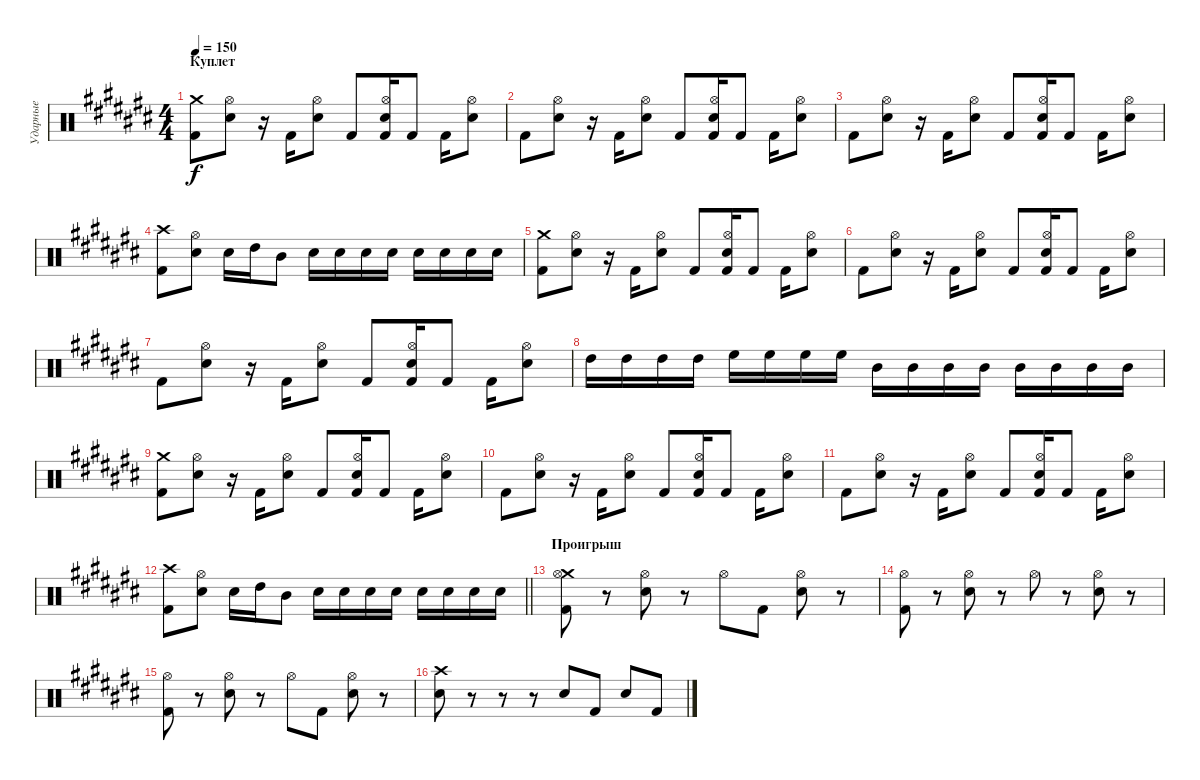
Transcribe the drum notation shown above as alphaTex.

\track ("Ударные" "Ударные") {instrument percussion}
\staff {score}
\articulation defaults
\ts (4 4)
\section ("" "Куплет")
\tempo 150
\clef neutral
\ks a#minor
("Crash medium (hit)" "Kick (hit) 2").8{dy f} ("Hi-Hat (open)" "Electric Snare (hit)").8 r.16 "Kick (hit) 2".16 ("Hi-Hat (open)" "Electric Snare (hit)").8 "Kick (hit) 2".8 ("Kick (hit) 2" "Hi-Hat (open)" "Electric Snare (hit)").16 "Kick (hit) 2".8 "Kick (hit) 2".16 ("Hi-Hat (open)" "Electric Snare (hit)").8 |
"Kick (hit) 2".8 ("Hi-Hat (open)" "Electric Snare (hit)").8 r.16 "Kick (hit) 2".16 ("Hi-Hat (open)" "Electric Snare (hit)").8 "Kick (hit) 2".8 ("Kick (hit) 2" "Hi-Hat (open)" "Electric Snare (hit)").16 "Kick (hit) 2".8 "Kick (hit) 2".16 ("Hi-Hat (open)" "Electric Snare (hit)").8 |
"Kick (hit) 2".8 ("Hi-Hat (open)" "Electric Snare (hit)").8 r.16 "Kick (hit) 2".16 ("Hi-Hat (open)" "Electric Snare (hit)").8 "Kick (hit) 2".8 ("Kick (hit) 2" "Hi-Hat (open)" "Electric Snare (hit)").16 "Kick (hit) 2".8 "Kick (hit) 2".16 ("Hi-Hat (open)" "Electric Snare (hit)").8 |
("Crash high (hit)" "Kick (hit) 2").8 ("Hi-Hat (open)" "Electric Snare (hit)").8 "Electric Snare (hit)".16 "High Tom (hit)".16 "Mid Tom (hit)".8 "Electric Snare (hit)".16 "Electric Snare (hit)".16 "Electric Snare (hit)".16 "Electric Snare (hit)".16 "Electric Snare (hit)".16 "Electric Snare (hit)".16 "Electric Snare (hit)".16 "Electric Snare (hit)".16 |
("Crash medium (hit)" "Kick (hit) 2").8 ("Hi-Hat (open)" "Electric Snare (hit)").8 r.16 "Kick (hit) 2".16 ("Hi-Hat (open)" "Electric Snare (hit)").8 "Kick (hit) 2".8 ("Kick (hit) 2" "Hi-Hat (open)" "Electric Snare (hit)").16 "Kick (hit) 2".8 "Kick (hit) 2".16 ("Hi-Hat (open)" "Electric Snare (hit)").8 |
"Kick (hit) 2".8 ("Hi-Hat (open)" "Electric Snare (hit)").8 r.16 "Kick (hit) 2".16 ("Hi-Hat (open)" "Electric Snare (hit)").8 "Kick (hit) 2".8 ("Kick (hit) 2" "Hi-Hat (open)" "Electric Snare (hit)").16 "Kick (hit) 2".8 "Kick (hit) 2".16 ("Hi-Hat (open)" "Electric Snare (hit)").8 |
"Kick (hit) 2".8 ("Hi-Hat (open)" "Electric Snare (hit)").8 r.16 "Kick (hit) 2".16 ("Hi-Hat (open)" "Electric Snare (hit)").8 "Kick (hit) 2".8 ("Kick (hit) 2" "Hi-Hat (open)" "Electric Snare (hit)").16 "Kick (hit) 2".8 "Kick (hit) 2".16 ("Hi-Hat (open)" "Electric Snare (hit)").8 |
"High Tom (hit)".16 "High Tom (hit)".16 "High Tom (hit)".16 "High Tom (hit)".16 "High Floor Tom (hit)".16 "High Floor Tom (hit)".16 "High Floor Tom (hit)".16 "High Floor Tom (hit)".16 "Mid Tom (hit)".16 "Mid Tom (hit)".16 "Mid Tom (hit)".16 "Mid Tom (hit)".16 "Mid Tom (hit)".16 "Mid Tom (hit)".16 "Mid Tom (hit)".16 "Mid Tom (hit)".16 |
("Crash medium (hit)" "Kick (hit) 2").8 ("Hi-Hat (open)" "Electric Snare (hit)").8 r.16 "Kick (hit) 2".16 ("Hi-Hat (open)" "Electric Snare (hit)").8 "Kick (hit) 2".8 ("Kick (hit) 2" "Hi-Hat (open)" "Electric Snare (hit)").16 "Kick (hit) 2".8 "Kick (hit) 2".16 ("Hi-Hat (open)" "Electric Snare (hit)").8 |
"Kick (hit) 2".8 ("Hi-Hat (open)" "Electric Snare (hit)").8 r.16 "Kick (hit) 2".16 ("Hi-Hat (open)" "Electric Snare (hit)").8 "Kick (hit) 2".8 ("Kick (hit) 2" "Hi-Hat (open)" "Electric Snare (hit)").16 "Kick (hit) 2".8 "Kick (hit) 2".16 ("Hi-Hat (open)" "Electric Snare (hit)").8 |
"Kick (hit) 2".8 ("Hi-Hat (open)" "Electric Snare (hit)").8 r.16 "Kick (hit) 2".16 ("Hi-Hat (open)" "Electric Snare (hit)").8 "Kick (hit) 2".8 ("Kick (hit) 2" "Hi-Hat (open)" "Electric Snare (hit)").16 "Kick (hit) 2".8 "Kick (hit) 2".16 ("Hi-Hat (open)" "Electric Snare (hit)").8 |
\barLineRight lightlight
("Crash high (hit)" "Kick (hit) 2").8 ("Hi-Hat (open)" "Electric Snare (hit)").8 "Electric Snare (hit)".16 "High Tom (hit)".16 "Mid Tom (hit)".8 "Electric Snare (hit)".16 "Electric Snare (hit)".16 "Electric Snare (hit)".16 "Electric Snare (hit)".16 "Electric Snare (hit)".16 "Electric Snare (hit)".16 "Electric Snare (hit)".16 "Electric Snare (hit)".16 |
\section ("" "Проигрыш")
("Crash medium (hit)" "Kick (hit) 2" "Hi-Hat (open)").8 r.8 ("Electric Snare (hit)" "Hi-Hat (open)").8 r.8 "Hi-Hat (open)".8 "Kick (hit) 2".8 ("Electric Snare (hit)" "Hi-Hat (open)").8 r.8 |
("Kick (hit) 2" "Hi-Hat (open)").8 r.8 ("Electric Snare (hit)" "Hi-Hat (open)").8 r.8 "Hi-Hat (open)".8 r.8 ("Electric Snare (hit)" "Hi-Hat (open)").8 r.8 |
("Kick (hit) 2" "Hi-Hat (open)").8 r.8 ("Electric Snare (hit)" "Hi-Hat (open)").8 r.8 "Hi-Hat (open)".8 "Kick (hit) 2".8 ("Electric Snare (hit)" "Hi-Hat (open)").8 r.8 |
("Crash high (hit)" "Electric Snare (hit)").8 r.8 r.8 r.8 "Electric Snare (hit)".8 "Kick (hit) 2".8 "Electric Snare (hit)".8 "Kick (hit) 2".8
